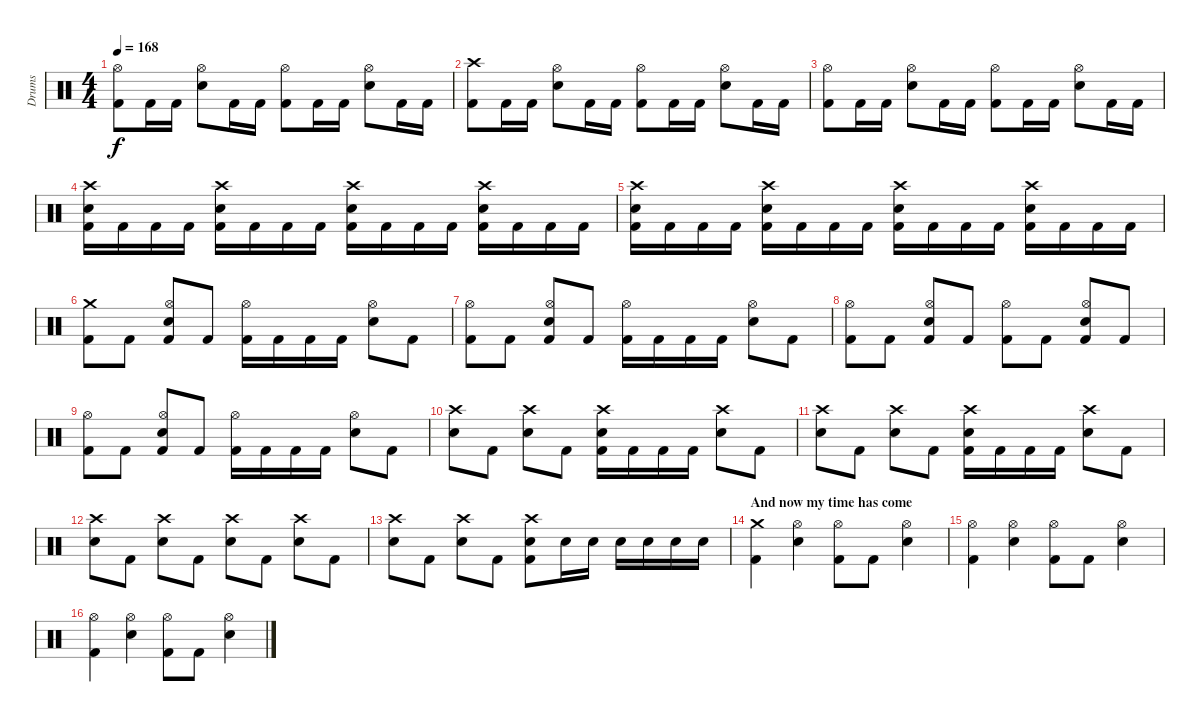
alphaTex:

\track ("Drums" "Drums") {instrument percussion}
\staff {score}
\articulation defaults
\ts (4 4)
\tempo 168
\clef neutral
\ks c
("Kick (hit) 2" "Hi-Hat (open)").8{dy f} "Kick (hit) 2".16 "Kick (hit) 2".16 ("Electric Snare (hit)" "Hi-Hat (open)").8 "Kick (hit) 2".16 "Kick (hit) 2".16 ("Kick (hit) 2" "Hi-Hat (open)").8 "Kick (hit) 2".16 "Kick (hit) 2".16 ("Electric Snare (hit)" "Hi-Hat (open)").8 "Kick (hit) 2".16 "Kick (hit) 2".16 |
("Kick (hit) 2" "Crash high (hit)").8 "Kick (hit) 2".16 "Kick (hit) 2".16 ("Electric Snare (hit)" "Hi-Hat (open)").8 "Kick (hit) 2".16 "Kick (hit) 2".16 ("Kick (hit) 2" "Hi-Hat (open)").8 "Kick (hit) 2".16 "Kick (hit) 2".16 ("Electric Snare (hit)" "Hi-Hat (open)").8 "Kick (hit) 2".16 "Kick (hit) 2".16 |
("Kick (hit) 2" "Hi-Hat (open)").8 "Kick (hit) 2".16 "Kick (hit) 2".16 ("Electric Snare (hit)" "Hi-Hat (open)").8 "Kick (hit) 2".16 "Kick (hit) 2".16 ("Kick (hit) 2" "Hi-Hat (open)").8 "Kick (hit) 2".16 "Kick (hit) 2".16 ("Electric Snare (hit)" "Hi-Hat (open)").8 "Kick (hit) 2".16 "Kick (hit) 2".16 |
("Kick (hit) 2" "Electric Snare (hit)" "Crash high (hit)").16 "Kick (hit) 2".16 "Kick (hit) 2".16 "Kick (hit) 2".16 ("Kick (hit) 2" "Electric Snare (hit)" "Crash high (hit)").16 "Kick (hit) 2".16 "Kick (hit) 2".16 "Kick (hit) 2".16 ("Kick (hit) 2" "Electric Snare (hit)" "Crash high (hit)").16 "Kick (hit) 2".16 "Kick (hit) 2".16 "Kick (hit) 2".16 ("Kick (hit) 2" "Electric Snare (hit)" "Crash high (hit)").16 "Kick (hit) 2".16 "Kick (hit) 2".16 "Kick (hit) 2".16 |
("Kick (hit) 2" "Electric Snare (hit)" "Crash high (hit)").16 "Kick (hit) 2".16 "Kick (hit) 2".16 "Kick (hit) 2".16 ("Kick (hit) 2" "Electric Snare (hit)" "Crash high (hit)").16 "Kick (hit) 2".16 "Kick (hit) 2".16 "Kick (hit) 2".16 ("Kick (hit) 2" "Electric Snare (hit)" "Crash high (hit)").16 "Kick (hit) 2".16 "Kick (hit) 2".16 "Kick (hit) 2".16 ("Kick (hit) 2" "Electric Snare (hit)" "Crash high (hit)").16 "Kick (hit) 2".16 "Kick (hit) 2".16 "Kick (hit) 2".16 |
\section ("" "")
("Kick (hit) 2" "Crash medium (hit)").8 "Kick (hit) 2".8 ("Kick (hit) 2" "Electric Snare (hit)" "Hi-Hat (open)").8 "Kick (hit) 2".8 ("Kick (hit) 2" "Hi-Hat (open)").16 "Kick (hit) 2".16 "Kick (hit) 2".16 "Kick (hit) 2".16 ("Electric Snare (hit)" "Hi-Hat (open)").8 "Kick (hit) 2".8 |
("Kick (hit) 2" "Hi-Hat (open)").8 "Kick (hit) 2".8 ("Kick (hit) 2" "Electric Snare (hit)" "Hi-Hat (open)").8 "Kick (hit) 2".8 ("Kick (hit) 2" "Hi-Hat (open)").16 "Kick (hit) 2".16 "Kick (hit) 2".16 "Kick (hit) 2".16 ("Electric Snare (hit)" "Hi-Hat (open)").8 "Kick (hit) 2".8 |
("Kick (hit) 2" "Hi-Hat (open)").8 "Kick (hit) 2".8 ("Kick (hit) 2" "Electric Snare (hit)" "Hi-Hat (open)").8 "Kick (hit) 2".8 ("Kick (hit) 2" "Hi-Hat (open)").8 "Kick (hit) 2".8 ("Kick (hit) 2" "Electric Snare (hit)" "Hi-Hat (open)").8 "Kick (hit) 2".8 |
("Kick (hit) 2" "Hi-Hat (open)").8 "Kick (hit) 2".8 ("Kick (hit) 2" "Electric Snare (hit)" "Hi-Hat (open)").8 "Kick (hit) 2".8 ("Kick (hit) 2" "Hi-Hat (open)").16 "Kick (hit) 2".16 "Kick (hit) 2".16 "Kick (hit) 2".16 ("Electric Snare (hit)" "Hi-Hat (open)").8 "Kick (hit) 2".8 |
("Electric Snare (hit)" "Crash high (hit)").8 "Kick (hit) 2".8 ("Electric Snare (hit)" "Crash high (hit)").8 "Kick (hit) 2".8 ("Kick (hit) 2" "Electric Snare (hit)" "Crash high (hit)").16 "Kick (hit) 2".16 "Kick (hit) 2".16 "Kick (hit) 2".16 ("Electric Snare (hit)" "Crash high (hit)").8 "Kick (hit) 2".8 |
("Electric Snare (hit)" "Crash high (hit)").8 "Kick (hit) 2".8 ("Electric Snare (hit)" "Crash high (hit)").8 "Kick (hit) 2".8 ("Kick (hit) 2" "Electric Snare (hit)" "Crash high (hit)").16 "Kick (hit) 2".16 "Kick (hit) 2".16 "Kick (hit) 2".16 ("Electric Snare (hit)" "Crash high (hit)").8 "Kick (hit) 2".8 |
("Electric Snare (hit)" "Crash high (hit)").8 "Kick (hit) 2".8 ("Electric Snare (hit)" "Crash high (hit)").8 "Kick (hit) 2".8 ("Electric Snare (hit)" "Crash high (hit)").8 "Kick (hit) 2".8 ("Electric Snare (hit)" "Crash high (hit)").8 "Kick (hit) 2".8 |
("Electric Snare (hit)" "Crash high (hit)").8 "Kick (hit) 2".8 ("Electric Snare (hit)" "Crash high (hit)").8 "Kick (hit) 2".8 ("Kick (hit) 2" "Electric Snare (hit)" "Crash high (hit)").8 "Electric Snare (hit)".16 "Electric Snare (hit)".16 "Electric Snare (hit)".16 "Electric Snare (hit)".16 "Electric Snare (hit)".16 "Electric Snare (hit)".16 |
\section ("" "And now my time has come")
("Kick (hit) 2" "Crash medium (hit)").4 ("Electric Snare (hit)" "Hi-Hat (open)").4 ("Kick (hit) 2" "Hi-Hat (open)").8 "Kick (hit) 2".8 ("Electric Snare (hit)" "Hi-Hat (open)").4 |
("Kick (hit) 2" "Hi-Hat (open)").4 ("Electric Snare (hit)" "Hi-Hat (open)").4 ("Kick (hit) 2" "Hi-Hat (open)").8 "Kick (hit) 2".8 ("Electric Snare (hit)" "Hi-Hat (open)").4 |
("Kick (hit) 2" "Hi-Hat (open)").4 ("Electric Snare (hit)" "Hi-Hat (open)").4 ("Kick (hit) 2" "Hi-Hat (open)").8 "Kick (hit) 2".8 ("Electric Snare (hit)" "Hi-Hat (open)").4
